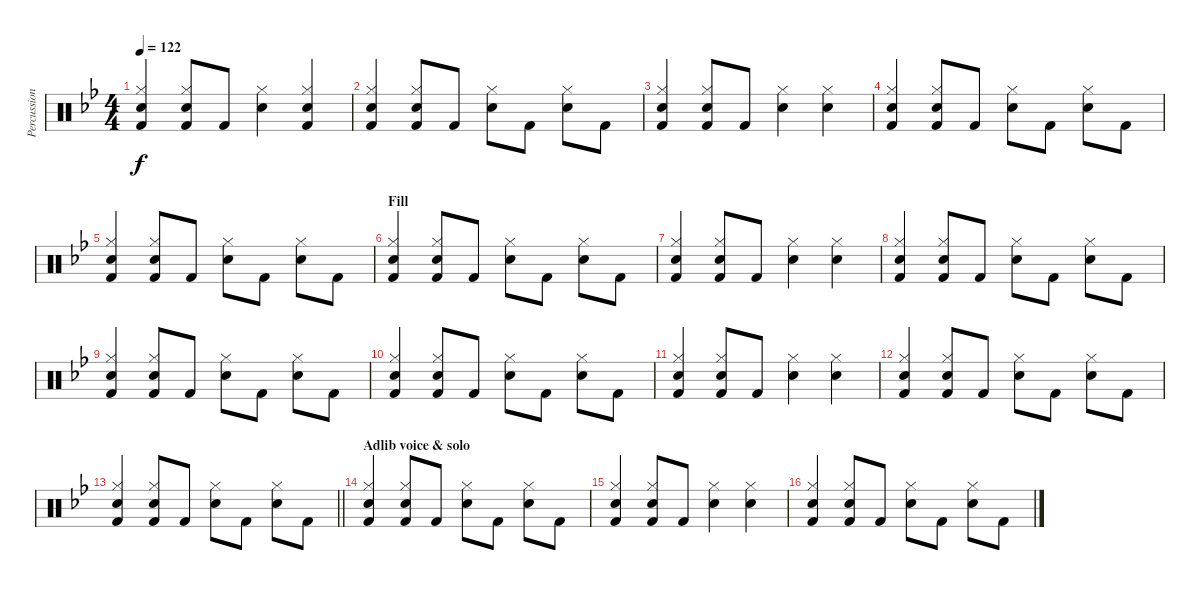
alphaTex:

\track ("Percussion" "Percussion") {instrument percussion}
\staff {score}
\articulation defaults
\ts (4 4)
\tempo 122
\clef neutral
\ks bb
("Hand Clap (hit)" "Hi-Hat (closed)" "Kick (hit) 2").4{dy f} ("Hand Clap (hit)" "Hi-Hat (closed)" "Kick (hit) 2").8 "Kick (hit) 2".8 ("Hand Clap (hit)" "Hi-Hat (closed)").4 ("Hand Clap (hit)" "Hi-Hat (closed)" "Kick (hit) 2").4 |
("Hand Clap (hit)" "Hi-Hat (closed)" "Kick (hit) 2").4 ("Hand Clap (hit)" "Hi-Hat (closed)" "Kick (hit) 2").8 "Kick (hit) 2".8 ("Hand Clap (hit)" "Hi-Hat (closed)").8 "Kick (hit) 2".8 ("Hand Clap (hit)" "Hi-Hat (closed)").8 "Kick (hit) 2".8 |
("Hand Clap (hit)" "Hi-Hat (closed)" "Kick (hit) 2").4 ("Hand Clap (hit)" "Hi-Hat (closed)" "Kick (hit) 2").8 "Kick (hit) 2".8 ("Hand Clap (hit)" "Hi-Hat (closed)").4 ("Hand Clap (hit)" "Hi-Hat (closed)").4 |
("Hand Clap (hit)" "Hi-Hat (closed)" "Kick (hit) 2").4 ("Hand Clap (hit)" "Hi-Hat (closed)" "Kick (hit) 2").8 "Kick (hit) 2".8 ("Hand Clap (hit)" "Hi-Hat (closed)").8 "Kick (hit) 2".8 ("Hand Clap (hit)" "Hi-Hat (closed)").8 "Kick (hit) 2".8 |
("Hand Clap (hit)" "Hi-Hat (closed)" "Kick (hit) 2").4 ("Hand Clap (hit)" "Hi-Hat (closed)" "Kick (hit) 2").8 "Kick (hit) 2".8 ("Hand Clap (hit)" "Hi-Hat (closed)").8 "Kick (hit) 2".8 ("Hand Clap (hit)" "Hi-Hat (closed)").8 "Kick (hit) 2".8 |
\section ("" "Fill")
("Hand Clap (hit)" "Hi-Hat (closed)" "Kick (hit) 2").4 ("Hand Clap (hit)" "Hi-Hat (closed)" "Kick (hit) 2").8 "Kick (hit) 2".8 ("Hand Clap (hit)" "Hi-Hat (closed)").8 "Kick (hit) 2".8 ("Hand Clap (hit)" "Hi-Hat (closed)").8 "Kick (hit) 2".8 |
("Hand Clap (hit)" "Hi-Hat (closed)" "Kick (hit) 2").4 ("Hand Clap (hit)" "Hi-Hat (closed)" "Kick (hit) 2").8 "Kick (hit) 2".8 ("Hand Clap (hit)" "Hi-Hat (closed)").4 ("Hand Clap (hit)" "Hi-Hat (closed)").4 |
("Hand Clap (hit)" "Hi-Hat (closed)" "Kick (hit) 2").4 ("Hand Clap (hit)" "Hi-Hat (closed)" "Kick (hit) 2").8 "Kick (hit) 2".8 ("Hand Clap (hit)" "Hi-Hat (closed)").8 "Kick (hit) 2".8 ("Hand Clap (hit)" "Hi-Hat (closed)").8 "Kick (hit) 2".8 |
("Hand Clap (hit)" "Hi-Hat (closed)" "Kick (hit) 2").4 ("Hand Clap (hit)" "Hi-Hat (closed)" "Kick (hit) 2").8 "Kick (hit) 2".8 ("Hand Clap (hit)" "Hi-Hat (closed)").8 "Kick (hit) 2".8 ("Hand Clap (hit)" "Hi-Hat (closed)").8 "Kick (hit) 2".8 |
("Hand Clap (hit)" "Hi-Hat (closed)" "Kick (hit) 2").4 ("Hand Clap (hit)" "Hi-Hat (closed)" "Kick (hit) 2").8 "Kick (hit) 2".8 ("Hand Clap (hit)" "Hi-Hat (closed)").8 "Kick (hit) 2".8 ("Hand Clap (hit)" "Hi-Hat (closed)").8 "Kick (hit) 2".8 |
("Hand Clap (hit)" "Hi-Hat (closed)" "Kick (hit) 2").4 ("Hand Clap (hit)" "Hi-Hat (closed)" "Kick (hit) 2").8 "Kick (hit) 2".8 ("Hand Clap (hit)" "Hi-Hat (closed)").4 ("Hand Clap (hit)" "Hi-Hat (closed)").4 |
("Hand Clap (hit)" "Hi-Hat (closed)" "Kick (hit) 2").4 ("Hand Clap (hit)" "Hi-Hat (closed)" "Kick (hit) 2").8 "Kick (hit) 2".8 ("Hand Clap (hit)" "Hi-Hat (closed)").8 "Kick (hit) 2".8 ("Hand Clap (hit)" "Hi-Hat (closed)").8 "Kick (hit) 2".8 |
\barLineRight lightlight
("Hand Clap (hit)" "Hi-Hat (closed)" "Kick (hit) 2").4 ("Hand Clap (hit)" "Hi-Hat (closed)" "Kick (hit) 2").8 "Kick (hit) 2".8 ("Hand Clap (hit)" "Hi-Hat (closed)").8 "Kick (hit) 2".8 ("Hand Clap (hit)" "Hi-Hat (closed)").8 "Kick (hit) 2".8 |
\section ("" "Adlib voice & solo")
("Hand Clap (hit)" "Hi-Hat (closed)" "Kick (hit) 2").4 ("Hand Clap (hit)" "Hi-Hat (closed)" "Kick (hit) 2").8 "Kick (hit) 2".8 ("Hand Clap (hit)" "Hi-Hat (closed)").8 "Kick (hit) 2".8 ("Hand Clap (hit)" "Hi-Hat (closed)").8 "Kick (hit) 2".8 |
("Hand Clap (hit)" "Hi-Hat (closed)" "Kick (hit) 2").4 ("Hand Clap (hit)" "Hi-Hat (closed)" "Kick (hit) 2").8 "Kick (hit) 2".8 ("Hand Clap (hit)" "Hi-Hat (closed)").4 ("Hand Clap (hit)" "Hi-Hat (closed)").4 |
("Hand Clap (hit)" "Hi-Hat (closed)" "Kick (hit) 2").4 ("Hand Clap (hit)" "Hi-Hat (closed)" "Kick (hit) 2").8 "Kick (hit) 2".8 ("Hand Clap (hit)" "Hi-Hat (closed)").8 "Kick (hit) 2".8 ("Hand Clap (hit)" "Hi-Hat (closed)").8 "Kick (hit) 2".8
